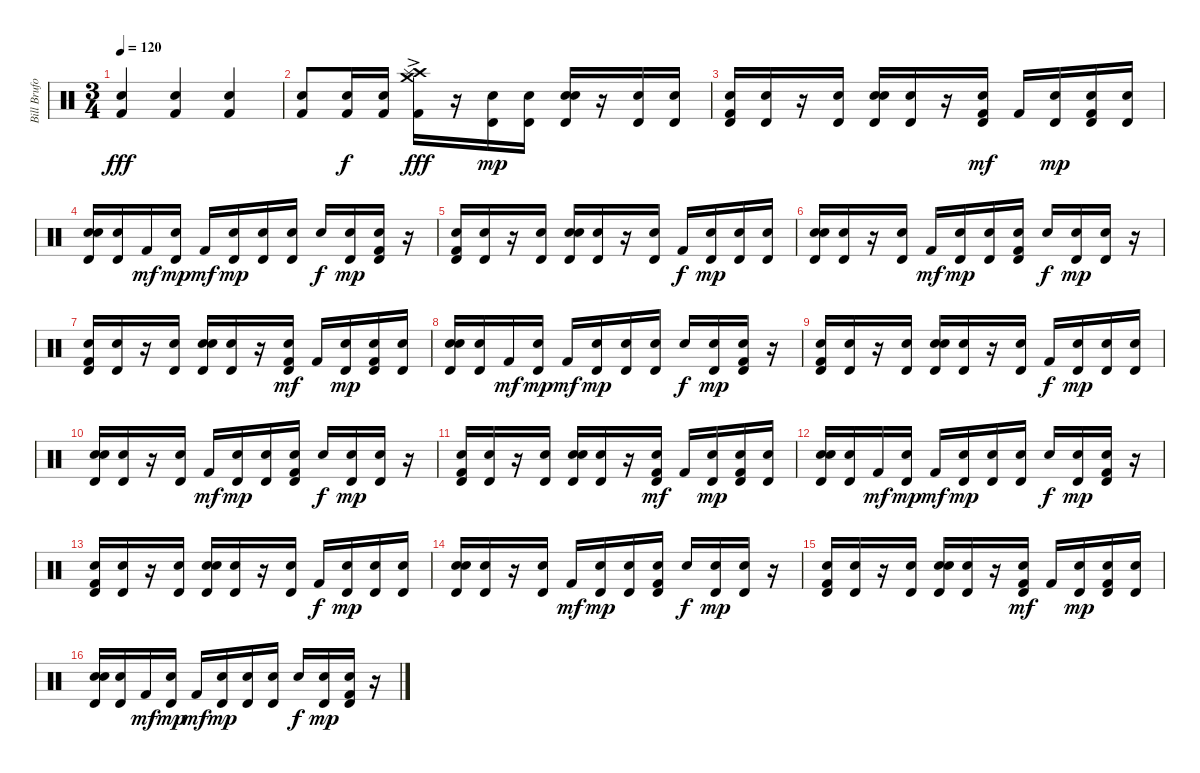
\track ("Bill Bruford (Drums)" "Bill Brufo") {instrument percussion}
\staff {score}
\articulation defaults
\ts (3 4)
\tempo 120
\clef neutral
\ks c
("Snare (hit) 2" "Kick (hit) 2").4{dy fff} ("Snare (hit) 2" "Kick (hit) 2").4 ("Snare (hit) 2" "Kick (hit) 2").4 |
("Snare (hit) 2" "Kick (hit) 2").8 ("Snare (hit) 2" "Kick (hit) 2").16{dy f} ("Snare (hit) 2" "Kick (hit) 2").16 ("Crash medium (hit)"{ac} "Crash high (hit)"{ac} "Splash (hit)"{ac} "Kick (hit) 2").16{dy fff} r.16 ("Electric Snare (hit)" "Timbale high (hit)").16{dy mp} ("Electric Snare (hit)" "Timbale high (hit)").16 ("Electric Snare (hit)" "Timbale high (hit)" "Electric Snare (hit)").16 r.16 ("Electric Snare (hit)" "Timbale high (hit)").16 ("Electric Snare (hit)" "Timbale high (hit)").16 |
("Electric Snare (hit)" "Timbale high (hit)" "Kick (hit) 2").16 ("Electric Snare (hit)" "Timbale high (hit)").16 r.16 ("Electric Snare (hit)" "Timbale high (hit)").16 ("Electric Snare (hit)" "Timbale high (hit)" "Electric Snare (hit)").16 ("Electric Snare (hit)" "Timbale high (hit)").16 r.16 ("Electric Snare (hit)" "Timbale high (hit)" "Kick (hit) 2").16{dy mf} "Kick (hit) 2".16 ("Electric Snare (hit)" "Timbale high (hit)").16{dy mp} ("Electric Snare (hit)" "Timbale high (hit)" "Kick (hit) 2").16 ("Electric Snare (hit)" "Timbale high (hit)").16 |
("Electric Snare (hit)" "Timbale high (hit)" "Electric Snare (hit)").16 ("Electric Snare (hit)" "Timbale high (hit)").16 "Kick (hit) 2".16{dy mf} ("Electric Snare (hit)" "Timbale high (hit)").16{dy mp} "Kick (hit) 2".16{dy mf} ("Electric Snare (hit)" "Timbale high (hit)").16{dy mp} ("Electric Snare (hit)" "Timbale high (hit)").16 ("Electric Snare (hit)" "Timbale high (hit)").16 "Electric Snare (hit)".16{dy f} ("Electric Snare (hit)" "Timbale high (hit)").16{dy mp} ("Electric Snare (hit)" "Timbale high (hit)" "Kick (hit) 2").16 r.16 |
("Electric Snare (hit)" "Timbale high (hit)" "Kick (hit) 2").16 ("Electric Snare (hit)" "Timbale high (hit)").16 r.16 ("Electric Snare (hit)" "Timbale high (hit)").16 ("Electric Snare (hit)" "Timbale high (hit)" "Electric Snare (hit)").16 ("Electric Snare (hit)" "Timbale high (hit)").16 r.16 ("Electric Snare (hit)" "Timbale high (hit)").16 "Kick (hit) 2".16{dy f} ("Electric Snare (hit)" "Timbale high (hit)").16{dy mp} ("Electric Snare (hit)" "Timbale high (hit)").16 ("Electric Snare (hit)" "Timbale high (hit)").16 |
("Electric Snare (hit)" "Timbale high (hit)" "Electric Snare (hit)").16 ("Electric Snare (hit)" "Timbale high (hit)").16 r.16 ("Electric Snare (hit)" "Timbale high (hit)").16 "Kick (hit) 2".16{dy mf} ("Electric Snare (hit)" "Timbale high (hit)").16{dy mp} ("Electric Snare (hit)" "Timbale high (hit)").16 ("Electric Snare (hit)" "Timbale high (hit)" "Kick (hit) 2").16 "Electric Snare (hit)".16{dy f} ("Electric Snare (hit)" "Timbale high (hit)").16{dy mp} ("Electric Snare (hit)" "Timbale high (hit)").16 r.16 |
("Electric Snare (hit)" "Timbale high (hit)" "Kick (hit) 2").16 ("Electric Snare (hit)" "Timbale high (hit)").16 r.16 ("Electric Snare (hit)" "Timbale high (hit)").16 ("Electric Snare (hit)" "Timbale high (hit)" "Electric Snare (hit)").16 ("Electric Snare (hit)" "Timbale high (hit)").16 r.16 ("Electric Snare (hit)" "Timbale high (hit)" "Kick (hit) 2").16{dy mf} "Kick (hit) 2".16 ("Electric Snare (hit)" "Timbale high (hit)").16{dy mp} ("Electric Snare (hit)" "Timbale high (hit)" "Kick (hit) 2").16 ("Electric Snare (hit)" "Timbale high (hit)").16 |
("Electric Snare (hit)" "Timbale high (hit)" "Electric Snare (hit)").16 ("Electric Snare (hit)" "Timbale high (hit)").16 "Kick (hit) 2".16{dy mf} ("Electric Snare (hit)" "Timbale high (hit)").16{dy mp} "Kick (hit) 2".16{dy mf} ("Electric Snare (hit)" "Timbale high (hit)").16{dy mp} ("Electric Snare (hit)" "Timbale high (hit)").16 ("Electric Snare (hit)" "Timbale high (hit)").16 "Electric Snare (hit)".16{dy f} ("Electric Snare (hit)" "Timbale high (hit)").16{dy mp} ("Electric Snare (hit)" "Timbale high (hit)" "Kick (hit) 2").16 r.16 |
("Electric Snare (hit)" "Timbale high (hit)" "Kick (hit) 2").16 ("Electric Snare (hit)" "Timbale high (hit)").16 r.16 ("Electric Snare (hit)" "Timbale high (hit)").16 ("Electric Snare (hit)" "Timbale high (hit)" "Electric Snare (hit)").16 ("Electric Snare (hit)" "Timbale high (hit)").16 r.16 ("Electric Snare (hit)" "Timbale high (hit)").16 "Kick (hit) 2".16{dy f} ("Electric Snare (hit)" "Timbale high (hit)").16{dy mp} ("Electric Snare (hit)" "Timbale high (hit)").16 ("Electric Snare (hit)" "Timbale high (hit)").16 |
("Electric Snare (hit)" "Timbale high (hit)" "Electric Snare (hit)").16 ("Electric Snare (hit)" "Timbale high (hit)").16 r.16 ("Electric Snare (hit)" "Timbale high (hit)").16 "Kick (hit) 2".16{dy mf} ("Electric Snare (hit)" "Timbale high (hit)").16{dy mp} ("Electric Snare (hit)" "Timbale high (hit)").16 ("Electric Snare (hit)" "Timbale high (hit)" "Kick (hit) 2").16 "Electric Snare (hit)".16{dy f} ("Electric Snare (hit)" "Timbale high (hit)").16{dy mp} ("Electric Snare (hit)" "Timbale high (hit)").16 r.16 |
("Electric Snare (hit)" "Timbale high (hit)" "Kick (hit) 2").16 ("Electric Snare (hit)" "Timbale high (hit)").16 r.16 ("Electric Snare (hit)" "Timbale high (hit)").16 ("Electric Snare (hit)" "Timbale high (hit)" "Electric Snare (hit)").16 ("Electric Snare (hit)" "Timbale high (hit)").16 r.16 ("Electric Snare (hit)" "Timbale high (hit)" "Kick (hit) 2").16{dy mf} "Kick (hit) 2".16 ("Electric Snare (hit)" "Timbale high (hit)").16{dy mp} ("Electric Snare (hit)" "Timbale high (hit)" "Kick (hit) 2").16 ("Electric Snare (hit)" "Timbale high (hit)").16 |
("Electric Snare (hit)" "Timbale high (hit)" "Electric Snare (hit)").16 ("Electric Snare (hit)" "Timbale high (hit)").16 "Kick (hit) 2".16{dy mf} ("Electric Snare (hit)" "Timbale high (hit)").16{dy mp} "Kick (hit) 2".16{dy mf} ("Electric Snare (hit)" "Timbale high (hit)").16{dy mp} ("Electric Snare (hit)" "Timbale high (hit)").16 ("Electric Snare (hit)" "Timbale high (hit)").16 "Electric Snare (hit)".16{dy f} ("Electric Snare (hit)" "Timbale high (hit)").16{dy mp} ("Electric Snare (hit)" "Timbale high (hit)" "Kick (hit) 2").16 r.16 |
("Electric Snare (hit)" "Timbale high (hit)" "Kick (hit) 2").16 ("Electric Snare (hit)" "Timbale high (hit)").16 r.16 ("Electric Snare (hit)" "Timbale high (hit)").16 ("Electric Snare (hit)" "Timbale high (hit)" "Electric Snare (hit)").16 ("Electric Snare (hit)" "Timbale high (hit)").16 r.16 ("Electric Snare (hit)" "Timbale high (hit)").16 "Kick (hit) 2".16{dy f} ("Electric Snare (hit)" "Timbale high (hit)").16{dy mp} ("Electric Snare (hit)" "Timbale high (hit)").16 ("Electric Snare (hit)" "Timbale high (hit)").16 |
("Electric Snare (hit)" "Timbale high (hit)" "Electric Snare (hit)").16 ("Electric Snare (hit)" "Timbale high (hit)").16 r.16 ("Electric Snare (hit)" "Timbale high (hit)").16 "Kick (hit) 2".16{dy mf} ("Electric Snare (hit)" "Timbale high (hit)").16{dy mp} ("Electric Snare (hit)" "Timbale high (hit)").16 ("Electric Snare (hit)" "Timbale high (hit)" "Kick (hit) 2").16 "Electric Snare (hit)".16{dy f} ("Electric Snare (hit)" "Timbale high (hit)").16{dy mp} ("Electric Snare (hit)" "Timbale high (hit)").16 r.16 |
("Electric Snare (hit)" "Timbale high (hit)" "Kick (hit) 2").16 ("Electric Snare (hit)" "Timbale high (hit)").16 r.16 ("Electric Snare (hit)" "Timbale high (hit)").16 ("Electric Snare (hit)" "Timbale high (hit)" "Electric Snare (hit)").16 ("Electric Snare (hit)" "Timbale high (hit)").16 r.16 ("Electric Snare (hit)" "Timbale high (hit)" "Kick (hit) 2").16{dy mf} "Kick (hit) 2".16 ("Electric Snare (hit)" "Timbale high (hit)").16{dy mp} ("Electric Snare (hit)" "Timbale high (hit)" "Kick (hit) 2").16 ("Electric Snare (hit)" "Timbale high (hit)").16 |
("Electric Snare (hit)" "Timbale high (hit)" "Electric Snare (hit)").16 ("Electric Snare (hit)" "Timbale high (hit)").16 "Kick (hit) 2".16{dy mf} ("Electric Snare (hit)" "Timbale high (hit)").16{dy mp} "Kick (hit) 2".16{dy mf} ("Electric Snare (hit)" "Timbale high (hit)").16{dy mp} ("Electric Snare (hit)" "Timbale high (hit)").16 ("Electric Snare (hit)" "Timbale high (hit)").16 "Electric Snare (hit)".16{dy f} ("Electric Snare (hit)" "Timbale high (hit)").16{dy mp} ("Electric Snare (hit)" "Timbale high (hit)" "Kick (hit) 2").16 r.16
